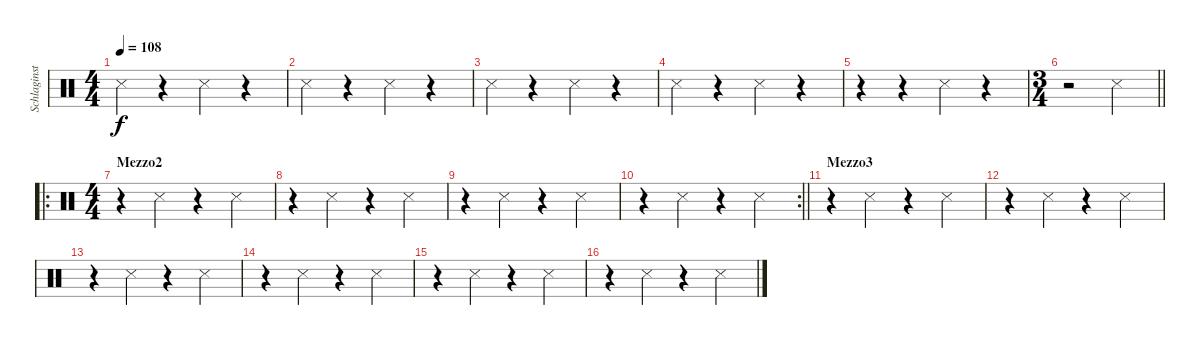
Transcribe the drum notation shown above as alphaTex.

\track ("Schlaginstrumente - Auswahl" "Schlaginst") {instrument percussion}
\staff {score}
\articulation defaults
\ts (4 4)
\tempo 108
\clef neutral
\ks c "Snare (side stick) 3".4{dy f}
r.4 "Snare (side stick) 3".4 r.4 |
"Snare (side stick) 3".4 r.4 "Snare (side stick) 3".4 r.4 |
"Snare (side stick) 3".4 r.4 "Snare (side stick) 3".4 r.4 |
"Snare (side stick) 3".4 r.4 "Snare (side stick) 3".4 r.4 |
r.4 r.4 "Snare (side stick) 3".4 r.4 |
\ts (3 4)
\barLineRight lightlight
r.2 "Snare (side stick) 3".4 |
\ro
\ts (4 4)
\section ("" "Mezzo2")
r.4 "Snare (side stick) 3".4 r.4 "Snare (side stick) 3".4 |
r.4 "Snare (side stick) 3".4 r.4 "Snare (side stick) 3".4 |
r.4 "Snare (side stick) 3".4 r.4 "Snare (side stick) 3".4 |
\rc 2
\barLineRight lightlight
r.4 "Snare (side stick) 3".4 r.4 "Snare (side stick) 3".4 |
\section ("" "Mezzo3")
r.4 "Snare (side stick) 3".4 r.4 "Snare (side stick) 3".4 |
r.4 "Snare (side stick) 3".4 r.4 "Snare (side stick) 3".4 |
r.4 "Snare (side stick) 3".4 r.4 "Snare (side stick) 3".4 |
r.4 "Snare (side stick) 3".4 r.4 "Snare (side stick) 3".4 |
r.4 "Snare (side stick) 3".4 r.4 "Snare (side stick) 3".4 |
r.4 "Snare (side stick) 3".4 r.4 "Snare (side stick) 3".4
